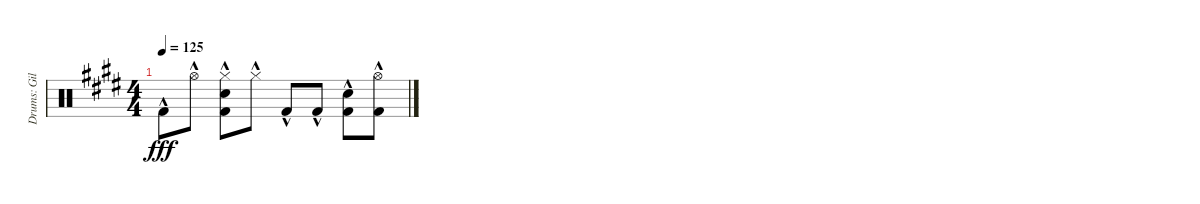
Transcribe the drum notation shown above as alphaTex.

\track ("Drums: Gil" "Drums: Gil") {instrument percussion}
\staff {score}
\articulation defaults
\ts (4 4)
\tempo 125
\clef neutral
\ks e "Kick (hit) 2"{hac}.8{dy fff} "Hi-Hat (open)"{hac}.8
("Hi-Hat (closed)"{hac} "Snare (hit) 2"{hac} "Kick (hit) 2"{hac}).8 "Hi-Hat (closed)"{hac}.8 "Kick (hit) 2"{hac}.8 "Kick (hit) 2"{hac}.8 ("Snare (hit) 2"{hac} "Kick (hit) 2"{hac}).8 ("Hi-Hat (open)"{hac} "Kick (hit) 2"{hac}).8
